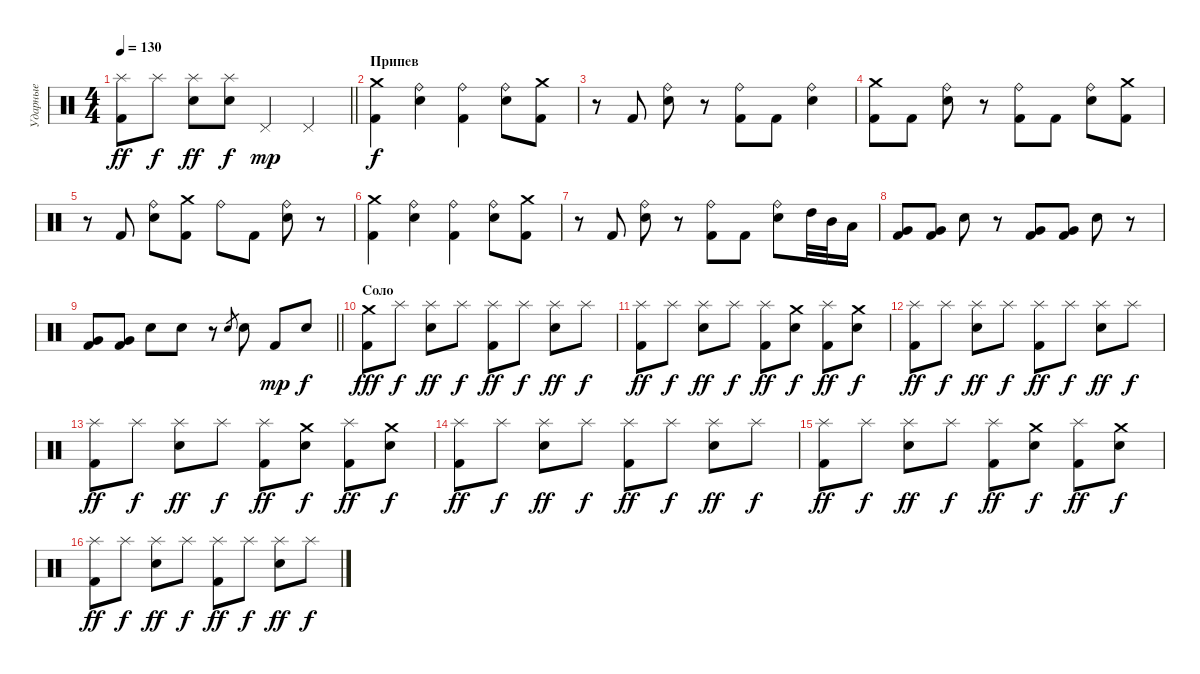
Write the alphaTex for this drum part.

\track ("Ударные" "Ударные") {instrument percussion}
\staff {score}
\articulation defaults
\ts (4 4)
\tempo 130
\clef neutral
\barLineRight lightlight
\ks c
("Kick (hit) 2" "Splash (hit)").8{dy ff} "Splash (hit)".8{dy f} ("Electric Snare (hit)" "Splash (hit)").8{dy ff} ("Electric Snare (hit)" "Splash (hit)").8{dy f} "Pedal Hi-Hat (hit)".4{dy mp} "Pedal Hi-Hat (hit)".4 |
\section ("" "Припев")
("Kick (hit) 2" "Crash medium (hit)").4{dy f} ("Electric Snare (hit)" "Ride (bell)").4 ("Kick (hit) 2" "Ride (bell)").4 ("Electric Snare (hit)" "Ride (bell)").8 ("Kick (hit) 2" "Crash medium (hit)").8 |
r.8 "Kick (hit) 2".8 ("Electric Snare (hit)" "Ride (bell)").8 r.8 ("Kick (hit) 2" "Ride (bell)").8 "Kick (hit) 2".8 ("Electric Snare (hit)" "Ride (bell)").4 |
("Kick (hit) 2" "Crash medium (hit)").8 "Kick (hit) 2".8 ("Electric Snare (hit)" "Ride (bell)").8 r.8 ("Kick (hit) 2" "Ride (bell)").8 "Kick (hit) 2".8 ("Electric Snare (hit)" "Ride (bell)").8 ("Kick (hit) 2" "Crash medium (hit)").8 |
r.8 "Kick (hit) 2".8 ("Electric Snare (hit)" "Ride (bell)").8 ("Kick (hit) 2" "Crash medium (hit)").8 "Ride (bell)".8 "Kick (hit) 2".8 ("Electric Snare (hit)" "Ride (bell)").8 r.8 |
("Kick (hit) 2" "Crash medium (hit)").4 ("Electric Snare (hit)" "Ride (bell)").4 ("Kick (hit) 2" "Ride (bell)").4 ("Electric Snare (hit)" "Ride (bell)").8 ("Kick (hit) 2" "Crash medium (hit)").8 |
r.8 "Kick (hit) 2".8 ("Electric Snare (hit)" "Ride (bell)").8 r.8 ("Kick (hit) 2" "Ride (bell)").8 "Kick (hit) 2".8 ("Electric Snare (hit)" "Ride (bell)").8 "High Tom (hit)".32 "Mid Tom (hit)".32 "Low Tom (hit)".16 |
("Kick (hit) 2" "Very Low Tom (hit)").8 ("Kick (hit) 2" "Very Low Tom (hit)").8 "Electric Snare (hit)".8 r.8 ("Kick (hit) 2" "Very Low Tom (hit)").8 ("Kick (hit) 2" "Very Low Tom (hit)").8 "Electric Snare (hit)".8 r.8 |
\barLineRight lightlight
("Kick (hit) 2" "Very Low Tom (hit)").8 ("Kick (hit) 2" "Very Low Tom (hit)").8 "Electric Snare (hit)".8 "Electric Snare (hit)".8 r.8 "Electric Snare (hit)".8{gr} "Electric Snare (hit)".8 "Kick (hit) 2".8{dy mp} "Electric Snare (hit)".8{dy f} |
\section ("" "Соло")
("Kick (hit) 2" "Crash medium (hit)").8{dy fff} "Splash (hit)".8{dy f} ("Electric Snare (hit)" "Splash (hit)").8{dy ff} "Splash (hit)".8{dy f} ("Kick (hit) 2" "Splash (hit)").8{dy ff} "Splash (hit)".8{dy f} ("Electric Snare (hit)" "Splash (hit)").8{dy ff} "Splash (hit)".8{dy f} |
("Kick (hit) 2" "Splash (hit)").8{dy ff} "Splash (hit)".8{dy f} ("Electric Snare (hit)" "Splash (hit)").8{dy ff} "Splash (hit)".8{dy f} ("Kick (hit) 2" "Splash (hit)").8{dy ff} ("Electric Snare (hit)" "Crash medium (hit)").8{dy f} ("Kick (hit) 2" "Splash (hit)").8{dy ff} ("Electric Snare (hit)" "Crash medium (hit)").8{dy f} |
("Kick (hit) 2" "Splash (hit)").8{dy ff} "Splash (hit)".8{dy f} ("Electric Snare (hit)" "Splash (hit)").8{dy ff} "Splash (hit)".8{dy f} ("Kick (hit) 2" "Splash (hit)").8{dy ff} "Splash (hit)".8{dy f} ("Electric Snare (hit)" "Splash (hit)").8{dy ff} "Splash (hit)".8{dy f} |
("Kick (hit) 2" "Splash (hit)").8{dy ff} "Splash (hit)".8{dy f} ("Electric Snare (hit)" "Splash (hit)").8{dy ff} "Splash (hit)".8{dy f} ("Kick (hit) 2" "Splash (hit)").8{dy ff} ("Electric Snare (hit)" "Crash medium (hit)").8{dy f} ("Kick (hit) 2" "Splash (hit)").8{dy ff} ("Electric Snare (hit)" "Crash medium (hit)").8{dy f} |
("Kick (hit) 2" "Splash (hit)").8{dy ff} "Splash (hit)".8{dy f} ("Electric Snare (hit)" "Splash (hit)").8{dy ff} "Splash (hit)".8{dy f} ("Kick (hit) 2" "Splash (hit)").8{dy ff} "Splash (hit)".8{dy f} ("Electric Snare (hit)" "Splash (hit)").8{dy ff} "Splash (hit)".8{dy f} |
("Kick (hit) 2" "Splash (hit)").8{dy ff} "Splash (hit)".8{dy f} ("Electric Snare (hit)" "Splash (hit)").8{dy ff} "Splash (hit)".8{dy f} ("Kick (hit) 2" "Splash (hit)").8{dy ff} ("Electric Snare (hit)" "Crash medium (hit)").8{dy f} ("Kick (hit) 2" "Splash (hit)").8{dy ff} ("Electric Snare (hit)" "Crash medium (hit)").8{dy f} |
("Kick (hit) 2" "Splash (hit)").8{dy ff} "Splash (hit)".8{dy f} ("Electric Snare (hit)" "Splash (hit)").8{dy ff} "Splash (hit)".8{dy f} ("Kick (hit) 2" "Splash (hit)").8{dy ff} "Splash (hit)".8{dy f} ("Electric Snare (hit)" "Splash (hit)").8{dy ff} "Splash (hit)".8{dy f}
